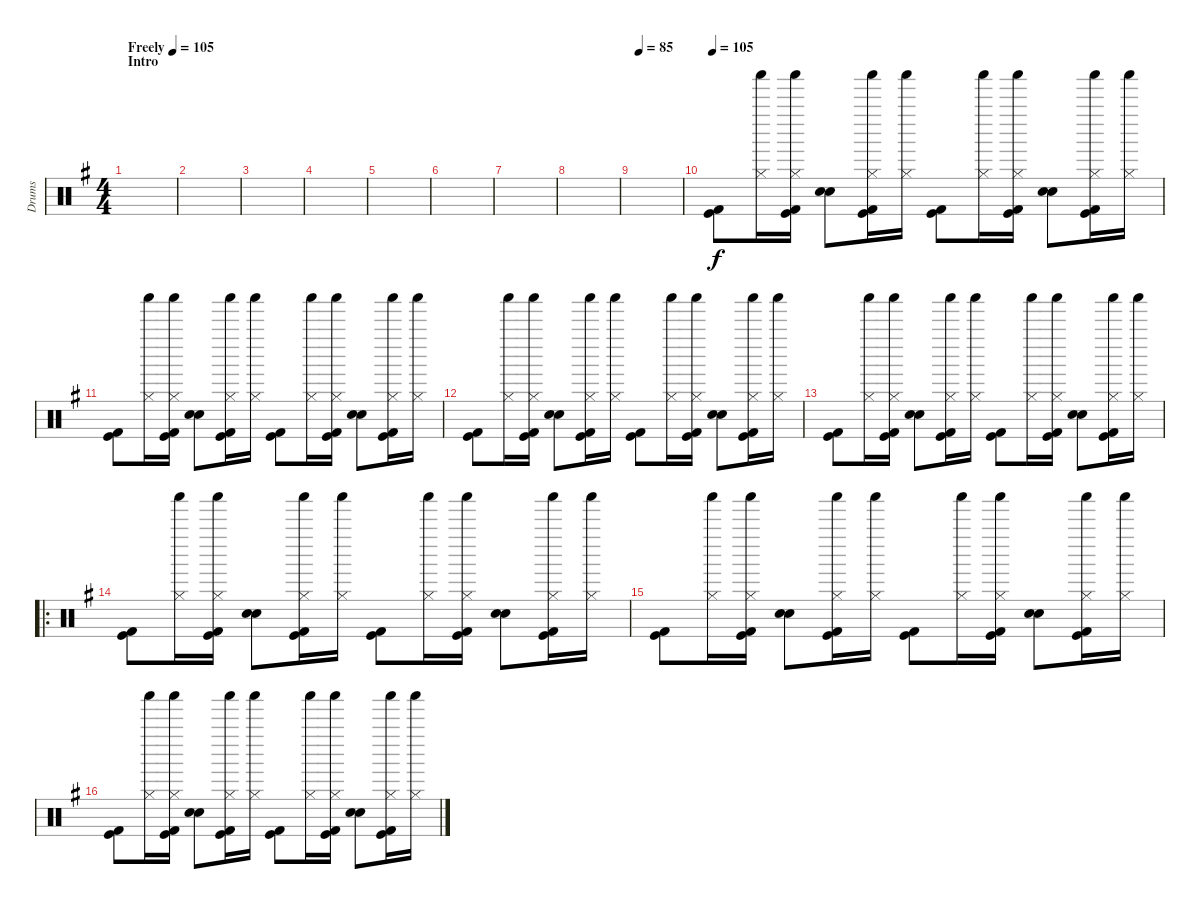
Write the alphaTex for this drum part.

\track ("Drums" "Drums") {instrument percussion}
\staff {score}
\articulation defaults
\ts (4 4)
\section ("" "Intro")
\tempo (105 "Freely")
\clef neutral
\ks g
|
|
|
|
|
|
|
|
\tempo (85 0.125)
|
\tempo 105
("Kick (hit)" "Kick (hit) 2").8 ("Shaker (hit)" "Hi-Hat (closed)").16 ("Shaker (hit)" "Hi-Hat (closed)" "Kick (hit)" "Kick (hit) 2").16 ("Electric Snare (hit)" "Snare (hit) 2").8 ("Shaker (hit)" "Hi-Hat (closed)" "Kick (hit)" "Kick (hit) 2").16 ("Shaker (hit)" "Hi-Hat (closed)").16 ("Kick (hit)" "Kick (hit) 2").8 ("Shaker (hit)" "Hi-Hat (closed)").16 ("Shaker (hit)" "Hi-Hat (closed)" "Kick (hit)" "Kick (hit) 2").16 ("Electric Snare (hit)" "Snare (hit) 2").8 ("Shaker (hit)" "Hi-Hat (closed)" "Kick (hit)" "Kick (hit) 2").16 ("Shaker (hit)" "Hi-Hat (closed)").16 |
("Kick (hit)" "Kick (hit) 2").8 ("Shaker (hit)" "Hi-Hat (closed)").16 ("Shaker (hit)" "Hi-Hat (closed)" "Kick (hit)" "Kick (hit) 2").16 ("Electric Snare (hit)" "Snare (hit) 2").8 ("Shaker (hit)" "Hi-Hat (closed)" "Kick (hit)" "Kick (hit) 2").16 ("Shaker (hit)" "Hi-Hat (closed)").16 ("Kick (hit)" "Kick (hit) 2").8 ("Shaker (hit)" "Hi-Hat (closed)").16 ("Shaker (hit)" "Hi-Hat (closed)" "Kick (hit)" "Kick (hit) 2").16 ("Electric Snare (hit)" "Snare (hit) 2").8 ("Shaker (hit)" "Hi-Hat (closed)" "Kick (hit)" "Kick (hit) 2").16 ("Shaker (hit)" "Hi-Hat (closed)").16 |
("Kick (hit)" "Kick (hit) 2").8 ("Shaker (hit)" "Hi-Hat (closed)").16 ("Shaker (hit)" "Hi-Hat (closed)" "Kick (hit)" "Kick (hit) 2").16 ("Electric Snare (hit)" "Snare (hit) 2").8 ("Shaker (hit)" "Hi-Hat (closed)" "Kick (hit)" "Kick (hit) 2").16 ("Shaker (hit)" "Hi-Hat (closed)").16 ("Kick (hit)" "Kick (hit) 2").8 ("Shaker (hit)" "Hi-Hat (closed)").16 ("Shaker (hit)" "Hi-Hat (closed)" "Kick (hit)" "Kick (hit) 2").16 ("Electric Snare (hit)" "Snare (hit) 2").8 ("Shaker (hit)" "Hi-Hat (closed)" "Kick (hit)" "Kick (hit) 2").16 ("Shaker (hit)" "Hi-Hat (closed)").16 |
("Kick (hit)" "Kick (hit) 2").8 ("Shaker (hit)" "Hi-Hat (closed)").16 ("Shaker (hit)" "Hi-Hat (closed)" "Kick (hit)" "Kick (hit) 2").16 ("Electric Snare (hit)" "Snare (hit) 2").8 ("Shaker (hit)" "Hi-Hat (closed)" "Kick (hit)" "Kick (hit) 2").16 ("Shaker (hit)" "Hi-Hat (closed)").16 ("Kick (hit)" "Kick (hit) 2").8 ("Shaker (hit)" "Hi-Hat (closed)").16 ("Shaker (hit)" "Hi-Hat (closed)" "Kick (hit)" "Kick (hit) 2").16 ("Electric Snare (hit)" "Snare (hit) 2").8 ("Shaker (hit)" "Hi-Hat (closed)" "Kick (hit)" "Kick (hit) 2").16 ("Shaker (hit)" "Hi-Hat (closed)").16 |
\ro
("Kick (hit)" "Kick (hit) 2").8 ("Shaker (hit)" "Hi-Hat (closed)").16 ("Shaker (hit)" "Hi-Hat (closed)" "Kick (hit)" "Kick (hit) 2").16 ("Electric Snare (hit)" "Snare (hit) 2").8 ("Shaker (hit)" "Hi-Hat (closed)" "Kick (hit)" "Kick (hit) 2").16 ("Shaker (hit)" "Hi-Hat (closed)").16 ("Kick (hit)" "Kick (hit) 2").8 ("Shaker (hit)" "Hi-Hat (closed)").16 ("Shaker (hit)" "Hi-Hat (closed)" "Kick (hit)" "Kick (hit) 2").16 ("Electric Snare (hit)" "Snare (hit) 2").8 ("Shaker (hit)" "Hi-Hat (closed)" "Kick (hit)" "Kick (hit) 2").16 ("Shaker (hit)" "Hi-Hat (closed)").16 |
("Kick (hit)" "Kick (hit) 2").8 ("Shaker (hit)" "Hi-Hat (closed)").16 ("Shaker (hit)" "Hi-Hat (closed)" "Kick (hit)" "Kick (hit) 2").16 ("Electric Snare (hit)" "Snare (hit) 2").8 ("Shaker (hit)" "Hi-Hat (closed)" "Kick (hit)" "Kick (hit) 2").16 ("Shaker (hit)" "Hi-Hat (closed)").16 ("Kick (hit)" "Kick (hit) 2").8 ("Shaker (hit)" "Hi-Hat (closed)").16 ("Shaker (hit)" "Hi-Hat (closed)" "Kick (hit)" "Kick (hit) 2").16 ("Electric Snare (hit)" "Snare (hit) 2").8 ("Shaker (hit)" "Hi-Hat (closed)" "Kick (hit)" "Kick (hit) 2").16 ("Shaker (hit)" "Hi-Hat (closed)").16 |
("Kick (hit)" "Kick (hit) 2").8 ("Shaker (hit)" "Hi-Hat (closed)").16 ("Shaker (hit)" "Hi-Hat (closed)" "Kick (hit)" "Kick (hit) 2").16 ("Electric Snare (hit)" "Snare (hit) 2").8 ("Shaker (hit)" "Hi-Hat (closed)" "Kick (hit)" "Kick (hit) 2").16 ("Shaker (hit)" "Hi-Hat (closed)").16 ("Kick (hit)" "Kick (hit) 2").8 ("Shaker (hit)" "Hi-Hat (closed)").16 ("Shaker (hit)" "Hi-Hat (closed)" "Kick (hit)" "Kick (hit) 2").16 ("Electric Snare (hit)" "Snare (hit) 2").8 ("Shaker (hit)" "Hi-Hat (closed)" "Kick (hit)" "Kick (hit) 2").16 ("Shaker (hit)" "Hi-Hat (closed)").16
